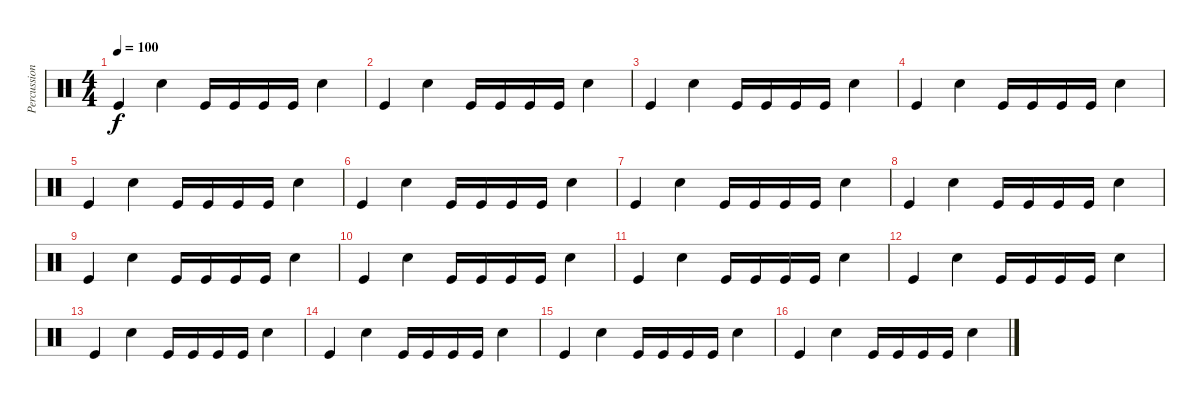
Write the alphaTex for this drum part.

\track ("Percussion" "Percussion") {instrument percussion}
\staff {score}
\articulation defaults
\ts (4 4)
\tempo 100
\clef neutral
\ks c "Kick (hit)".4{dy f} "Snare (hit) 2".4 "Kick (hit)".16 "Kick (hit)".16 "Kick (hit)".16 "Kick (hit)".16 "Snare (hit) 2".4
|
"Kick (hit)".4 "Snare (hit) 2".4 "Kick (hit)".16 "Kick (hit)".16 "Kick (hit)".16 "Kick (hit)".16 "Snare (hit) 2".4 |
"Kick (hit)".4 "Snare (hit) 2".4 "Kick (hit)".16 "Kick (hit)".16 "Kick (hit)".16 "Kick (hit)".16 "Snare (hit) 2".4 |
"Kick (hit)".4 "Snare (hit) 2".4 "Kick (hit)".16 "Kick (hit)".16 "Kick (hit)".16 "Kick (hit)".16 "Snare (hit) 2".4 |
"Kick (hit)".4 "Snare (hit) 2".4 "Kick (hit)".16 "Kick (hit)".16 "Kick (hit)".16 "Kick (hit)".16 "Snare (hit) 2".4 |
"Kick (hit)".4 "Snare (hit) 2".4 "Kick (hit)".16 "Kick (hit)".16 "Kick (hit)".16 "Kick (hit)".16 "Snare (hit) 2".4 |
"Kick (hit)".4 "Snare (hit) 2".4 "Kick (hit)".16 "Kick (hit)".16 "Kick (hit)".16 "Kick (hit)".16 "Snare (hit) 2".4 |
"Kick (hit)".4 "Snare (hit) 2".4 "Kick (hit)".16 "Kick (hit)".16 "Kick (hit)".16 "Kick (hit)".16 "Snare (hit) 2".4 |
"Kick (hit)".4 "Snare (hit) 2".4 "Kick (hit)".16 "Kick (hit)".16 "Kick (hit)".16 "Kick (hit)".16 "Snare (hit) 2".4 |
"Kick (hit)".4 "Snare (hit) 2".4 "Kick (hit)".16 "Kick (hit)".16 "Kick (hit)".16 "Kick (hit)".16 "Snare (hit) 2".4 |
"Kick (hit)".4 "Snare (hit) 2".4 "Kick (hit)".16 "Kick (hit)".16 "Kick (hit)".16 "Kick (hit)".16 "Snare (hit) 2".4 |
"Kick (hit)".4 "Snare (hit) 2".4 "Kick (hit)".16 "Kick (hit)".16 "Kick (hit)".16 "Kick (hit)".16 "Snare (hit) 2".4 |
"Kick (hit)".4 "Snare (hit) 2".4 "Kick (hit)".16 "Kick (hit)".16 "Kick (hit)".16 "Kick (hit)".16 "Snare (hit) 2".4 |
"Kick (hit)".4 "Snare (hit) 2".4 "Kick (hit)".16 "Kick (hit)".16 "Kick (hit)".16 "Kick (hit)".16 "Snare (hit) 2".4 |
"Kick (hit)".4 "Snare (hit) 2".4 "Kick (hit)".16 "Kick (hit)".16 "Kick (hit)".16 "Kick (hit)".16 "Snare (hit) 2".4 |
"Kick (hit)".4 "Snare (hit) 2".4 "Kick (hit)".16 "Kick (hit)".16 "Kick (hit)".16 "Kick (hit)".16 "Snare (hit) 2".4
